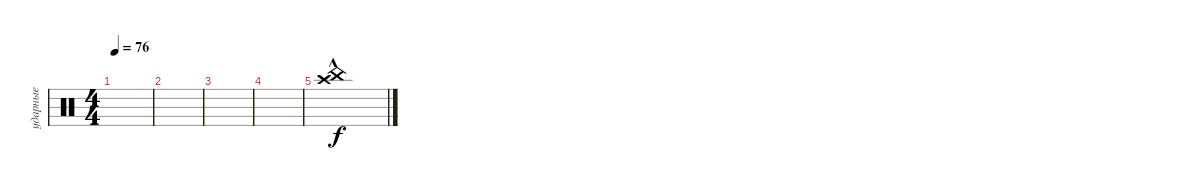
\track ("ударные" "ударные") {instrument percussion}
\staff {score}
\articulation defaults
\ts (4 4)
\tempo 76
\clef neutral
\ks c
|
|
|
|
("Crash high (hit)"{hac} "China (hit)"{hac}).1
